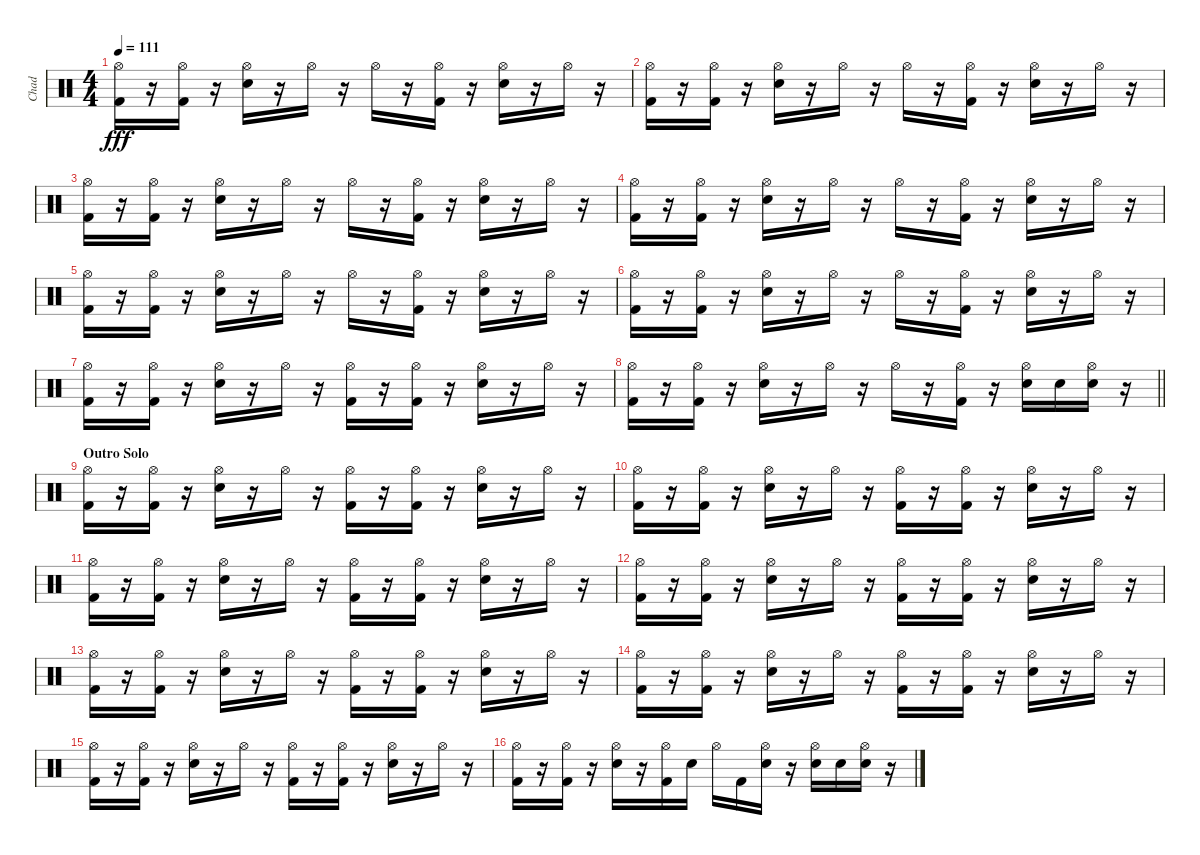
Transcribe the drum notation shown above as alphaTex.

\track ("Chad" "Chad") {instrument percussion}
\staff {score}
\articulation defaults
\ts (4 4)
\tempo 111
\clef neutral
\ks c
("Hi-Hat (open)" "Kick (hit) 2").16{dy fff} r.16 ("Hi-Hat (open)" "Kick (hit) 2").16 r.16 ("Hi-Hat (open)" "Electric Snare (hit)").16 r.16 "Hi-Hat (open)".16 r.16 "Hi-Hat (open)".16 r.16 ("Hi-Hat (open)" "Kick (hit) 2").16 r.16 ("Hi-Hat (open)" "Electric Snare (hit)").16 r.16 "Hi-Hat (open)".16 r.16 |
("Hi-Hat (open)" "Kick (hit) 2").16 r.16 ("Hi-Hat (open)" "Kick (hit) 2").16 r.16 ("Hi-Hat (open)" "Electric Snare (hit)").16 r.16 "Hi-Hat (open)".16 r.16 "Hi-Hat (open)".16 r.16 ("Hi-Hat (open)" "Kick (hit) 2").16 r.16 ("Hi-Hat (open)" "Electric Snare (hit)").16 r.16 "Hi-Hat (open)".16 r.16 |
("Hi-Hat (open)" "Kick (hit) 2").16 r.16 ("Hi-Hat (open)" "Kick (hit) 2").16 r.16 ("Hi-Hat (open)" "Electric Snare (hit)").16 r.16 "Hi-Hat (open)".16 r.16 "Hi-Hat (open)".16 r.16 ("Hi-Hat (open)" "Kick (hit) 2").16 r.16 ("Hi-Hat (open)" "Electric Snare (hit)").16 r.16 "Hi-Hat (open)".16 r.16 |
("Hi-Hat (open)" "Kick (hit) 2").16 r.16 ("Hi-Hat (open)" "Kick (hit) 2").16 r.16 ("Hi-Hat (open)" "Electric Snare (hit)").16 r.16 "Hi-Hat (open)".16 r.16 "Hi-Hat (open)".16 r.16 ("Hi-Hat (open)" "Kick (hit) 2").16 r.16 ("Hi-Hat (open)" "Electric Snare (hit)").16 r.16 "Hi-Hat (open)".16 r.16 |
("Hi-Hat (open)" "Kick (hit) 2").16 r.16 ("Hi-Hat (open)" "Kick (hit) 2").16 r.16 ("Hi-Hat (open)" "Electric Snare (hit)").16 r.16 "Hi-Hat (open)".16 r.16 "Hi-Hat (open)".16 r.16 ("Hi-Hat (open)" "Kick (hit) 2").16 r.16 ("Hi-Hat (open)" "Electric Snare (hit)").16 r.16 "Hi-Hat (open)".16 r.16 |
("Hi-Hat (open)" "Kick (hit) 2").16 r.16 ("Hi-Hat (open)" "Kick (hit) 2").16 r.16 ("Hi-Hat (open)" "Electric Snare (hit)").16 r.16 "Hi-Hat (open)".16 r.16 "Hi-Hat (open)".16 r.16 ("Hi-Hat (open)" "Kick (hit) 2").16 r.16 ("Hi-Hat (open)" "Electric Snare (hit)").16 r.16 "Hi-Hat (open)".16 r.16 |
("Hi-Hat (open)" "Kick (hit) 2").16 r.16 ("Hi-Hat (open)" "Kick (hit) 2").16 r.16 ("Hi-Hat (open)" "Electric Snare (hit)").16 r.16 "Hi-Hat (open)".16 r.16 ("Hi-Hat (open)" "Kick (hit) 2").16 r.16 ("Hi-Hat (open)" "Kick (hit) 2").16 r.16 ("Hi-Hat (open)" "Electric Snare (hit)").16 r.16 "Hi-Hat (open)".16 r.16 |
\barLineRight lightlight
("Hi-Hat (open)" "Kick (hit) 2").16 r.16 ("Hi-Hat (open)" "Kick (hit) 2").16 r.16 ("Hi-Hat (open)" "Electric Snare (hit)").16 r.16 "Hi-Hat (open)".16 r.16 "Hi-Hat (open)".16 r.16 ("Hi-Hat (open)" "Kick (hit) 2").16 r.16 ("Hi-Hat (open)" "Electric Snare (hit)").16 "Electric Snare (hit)".16 ("Hi-Hat (open)" "Electric Snare (hit)").16 r.16 |
\section ("" "Outro Solo")
("Hi-Hat (open)" "Kick (hit) 2").16 r.16 ("Hi-Hat (open)" "Kick (hit) 2").16 r.16 ("Hi-Hat (open)" "Electric Snare (hit)").16 r.16 "Hi-Hat (open)".16 r.16 ("Hi-Hat (open)" "Kick (hit) 2").16 r.16 ("Hi-Hat (open)" "Kick (hit) 2").16 r.16 ("Hi-Hat (open)" "Electric Snare (hit)").16 r.16 "Hi-Hat (open)".16 r.16 |
("Hi-Hat (open)" "Kick (hit) 2").16 r.16 ("Hi-Hat (open)" "Kick (hit) 2").16 r.16 ("Hi-Hat (open)" "Electric Snare (hit)").16 r.16 "Hi-Hat (open)".16 r.16 ("Hi-Hat (open)" "Kick (hit) 2").16 r.16 ("Hi-Hat (open)" "Kick (hit) 2").16 r.16 ("Hi-Hat (open)" "Electric Snare (hit)").16 r.16 "Hi-Hat (open)".16 r.16 |
("Hi-Hat (open)" "Kick (hit) 2").16 r.16 ("Hi-Hat (open)" "Kick (hit) 2").16 r.16 ("Hi-Hat (open)" "Electric Snare (hit)").16 r.16 "Hi-Hat (open)".16 r.16 ("Hi-Hat (open)" "Kick (hit) 2").16 r.16 ("Hi-Hat (open)" "Kick (hit) 2").16 r.16 ("Hi-Hat (open)" "Electric Snare (hit)").16 r.16 "Hi-Hat (open)".16 r.16 |
("Hi-Hat (open)" "Kick (hit) 2").16 r.16 ("Hi-Hat (open)" "Kick (hit) 2").16 r.16 ("Hi-Hat (open)" "Electric Snare (hit)").16 r.16 "Hi-Hat (open)".16 r.16 ("Hi-Hat (open)" "Kick (hit) 2").16 r.16 ("Hi-Hat (open)" "Kick (hit) 2").16 r.16 ("Hi-Hat (open)" "Electric Snare (hit)").16 r.16 "Hi-Hat (open)".16 r.16 |
("Hi-Hat (open)" "Kick (hit) 2").16 r.16 ("Hi-Hat (open)" "Kick (hit) 2").16 r.16 ("Hi-Hat (open)" "Electric Snare (hit)").16 r.16 "Hi-Hat (open)".16 r.16 ("Hi-Hat (open)" "Kick (hit) 2").16 r.16 ("Hi-Hat (open)" "Kick (hit) 2").16 r.16 ("Hi-Hat (open)" "Electric Snare (hit)").16 r.16 "Hi-Hat (open)".16 r.16 |
("Hi-Hat (open)" "Kick (hit) 2").16 r.16 ("Hi-Hat (open)" "Kick (hit) 2").16 r.16 ("Hi-Hat (open)" "Electric Snare (hit)").16 r.16 "Hi-Hat (open)".16 r.16 ("Hi-Hat (open)" "Kick (hit) 2").16 r.16 ("Hi-Hat (open)" "Kick (hit) 2").16 r.16 ("Hi-Hat (open)" "Electric Snare (hit)").16 r.16 "Hi-Hat (open)".16 r.16 |
("Hi-Hat (open)" "Kick (hit) 2").16 r.16 ("Hi-Hat (open)" "Kick (hit) 2").16 r.16 ("Hi-Hat (open)" "Electric Snare (hit)").16 r.16 "Hi-Hat (open)".16 r.16 ("Hi-Hat (open)" "Kick (hit) 2").16 r.16 ("Hi-Hat (open)" "Kick (hit) 2").16 r.16 ("Hi-Hat (open)" "Electric Snare (hit)").16 r.16 "Hi-Hat (open)".16 r.16 |
("Hi-Hat (open)" "Kick (hit) 2").16 r.16 ("Hi-Hat (open)" "Kick (hit) 2").16 r.16 ("Hi-Hat (open)" "Electric Snare (hit)").16 r.16 ("Hi-Hat (open)" "Kick (hit) 2").16 "Electric Snare (hit)".16 "Hi-Hat (open)".16 "Kick (hit) 2".16 ("Hi-Hat (open)" "Electric Snare (hit)").16 r.16 ("Hi-Hat (open)" "Electric Snare (hit)").16 "Electric Snare (hit)".16 ("Hi-Hat (open)" "Electric Snare (hit)").16 r.16
